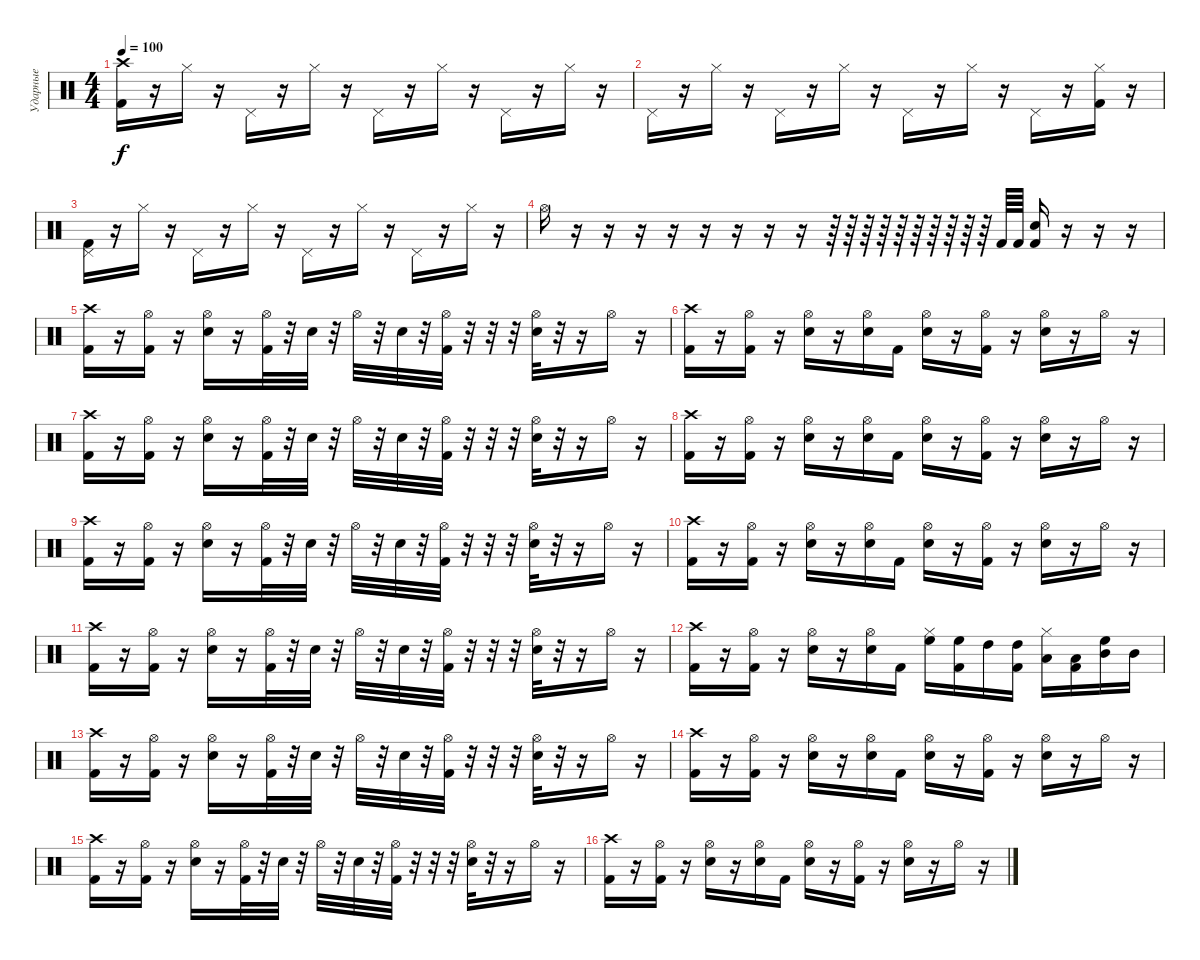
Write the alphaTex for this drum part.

\track ("Ударные" "Ударные") {instrument percussion}
\staff {score}
\articulation defaults
\ts (4 4)
\tempo 100
\clef neutral
\ks c
("Crash high (hit)" "Kick (hit) 2").16{dy f} r.16 "Hi-Hat (closed)".16 r.16 "Pedal Hi-Hat (hit)".16 r.16 "Hi-Hat (closed)".16 r.16 "Pedal Hi-Hat (hit)".16 r.16 "Hi-Hat (closed)".16 r.16 "Pedal Hi-Hat (hit)".16 r.16 "Hi-Hat (closed)".16 r.16 |
"Pedal Hi-Hat (hit)".16 r.16 "Hi-Hat (closed)".16 r.16 "Pedal Hi-Hat (hit)".16 r.16 "Hi-Hat (closed)".16 r.16 "Pedal Hi-Hat (hit)".16 r.16 "Hi-Hat (closed)".16 r.16 "Pedal Hi-Hat (hit)".16 r.16 ("Hi-Hat (closed)" "Kick (hit) 2").16 r.16 |
("Pedal Hi-Hat (hit)" "Kick (hit) 2").16 r.16 "Hi-Hat (closed)".16 r.16 "Pedal Hi-Hat (hit)".16 r.16 "Hi-Hat (closed)".16 r.16 "Pedal Hi-Hat (hit)".16 r.16 "Hi-Hat (closed)".16 r.16 "Pedal Hi-Hat (hit)".16 r.16 "Hi-Hat (closed)".16 r.16 |
"Hi-Hat (open)".16 r.16 r.16 r.16 r.16 r.16 r.16 r.16 r.16 r.64 r.64 r.64 r.64 r.64 r.64 r.64 r.64 r.64 r.64 "Kick (hit) 2".64 "Kick (hit) 2".64 ("Electric Snare (hit)" "Kick (hit) 2").16 r.16 r.16 r.16 |
("Crash high (hit)" "Kick (hit) 2").16 r.16 ("Hi-Hat (open)" "Kick (hit) 2").16 r.16 ("Hi-Hat (open)" "Electric Snare (hit)").16 r.16 ("Hi-Hat (open)" "Kick (hit) 2").32 r.32 "Electric Snare (hit)".32 r.32 "Hi-Hat (open)".32 r.32 "Electric Snare (hit)".32 r.32 ("Hi-Hat (open)" "Kick (hit) 2").32 r.32 r.32 r.32 ("Hi-Hat (open)" "Electric Snare (hit)").32 r.32 r.16 "Hi-Hat (open)".16 r.16 |
("Crash high (hit)" "Kick (hit) 2").16 r.16 ("Hi-Hat (open)" "Kick (hit) 2").16 r.16 ("Hi-Hat (open)" "Electric Snare (hit)").16 r.16 ("Hi-Hat (open)" "Electric Snare (hit)").16 "Kick (hit) 2".16 ("Hi-Hat (open)" "Electric Snare (hit)").16 r.16 ("Hi-Hat (open)" "Kick (hit) 2").16 r.16 ("Hi-Hat (open)" "Electric Snare (hit)").16 r.16 "Hi-Hat (open)".16 r.16 |
("Crash high (hit)" "Kick (hit) 2").16 r.16 ("Hi-Hat (open)" "Kick (hit) 2").16 r.16 ("Hi-Hat (open)" "Electric Snare (hit)").16 r.16 ("Hi-Hat (open)" "Kick (hit) 2").32 r.32 "Electric Snare (hit)".32 r.32 "Hi-Hat (open)".32 r.32 "Electric Snare (hit)".32 r.32 ("Hi-Hat (open)" "Kick (hit) 2").32 r.32 r.32 r.32 ("Hi-Hat (open)" "Electric Snare (hit)").32 r.32 r.16 "Hi-Hat (open)".16 r.16 |
("Crash high (hit)" "Kick (hit) 2").16 r.16 ("Hi-Hat (open)" "Kick (hit) 2").16 r.16 ("Hi-Hat (open)" "Electric Snare (hit)").16 r.16 ("Hi-Hat (open)" "Electric Snare (hit)").16 "Kick (hit) 2".16 ("Hi-Hat (open)" "Electric Snare (hit)").16 r.16 ("Hi-Hat (open)" "Kick (hit) 2").16 r.16 ("Hi-Hat (open)" "Electric Snare (hit)").16 r.16 "Hi-Hat (open)".16 r.16 |
("Crash high (hit)" "Kick (hit) 2").16 r.16 ("Hi-Hat (open)" "Kick (hit) 2").16 r.16 ("Hi-Hat (open)" "Electric Snare (hit)").16 r.16 ("Hi-Hat (open)" "Kick (hit) 2").32 r.32 "Electric Snare (hit)".32 r.32 "Hi-Hat (open)".32 r.32 "Electric Snare (hit)".32 r.32 ("Hi-Hat (open)" "Kick (hit) 2").32 r.32 r.32 r.32 ("Hi-Hat (open)" "Electric Snare (hit)").32 r.32 r.16 "Hi-Hat (open)".16 r.16 |
("Crash high (hit)" "Kick (hit) 2").16 r.16 ("Hi-Hat (open)" "Kick (hit) 2").16 r.16 ("Hi-Hat (open)" "Electric Snare (hit)").16 r.16 ("Hi-Hat (open)" "Electric Snare (hit)").16 "Kick (hit) 2".16 ("Hi-Hat (open)" "Electric Snare (hit)").16 r.16 ("Hi-Hat (open)" "Kick (hit) 2").16 r.16 ("Hi-Hat (open)" "Electric Snare (hit)").16 r.16 "Hi-Hat (open)".16 r.16 |
("Crash high (hit)" "Kick (hit) 2").16 r.16 ("Hi-Hat (open)" "Kick (hit) 2").16 r.16 ("Hi-Hat (open)" "Electric Snare (hit)").16 r.16 ("Hi-Hat (open)" "Kick (hit) 2").32 r.32 "Electric Snare (hit)".32 r.32 "Hi-Hat (open)".32 r.32 "Electric Snare (hit)".32 r.32 ("Hi-Hat (open)" "Kick (hit) 2").32 r.32 r.32 r.32 ("Hi-Hat (open)" "Electric Snare (hit)").32 r.32 r.16 "Hi-Hat (open)".16 r.16 |
("Crash high (hit)" "Kick (hit) 2").16 r.16 ("Hi-Hat (open)" "Kick (hit) 2").16 r.16 ("Hi-Hat (open)" "Electric Snare (hit)").16 r.16 ("Hi-Hat (open)" "Electric Snare (hit)").16 "Kick (hit) 2".16 ("Hi-Hat (closed)" "High Floor Tom (hit)").16 ("High Floor Tom (hit)" "Kick (hit) 2").16 "High Tom (hit)".16 ("High Tom (hit)" "Kick (hit) 2").16 ("Hi-Hat (closed)" "Low Tom (hit)").16 ("Low Tom (hit)" "Kick (hit) 2").16 ("High Floor Tom (hit)" "Mid Tom (hit)").16 "Mid Tom (hit)".16 |
("Crash high (hit)" "Kick (hit) 2").16 r.16 ("Hi-Hat (open)" "Kick (hit) 2").16 r.16 ("Hi-Hat (open)" "Electric Snare (hit)").16 r.16 ("Hi-Hat (open)" "Kick (hit) 2").32 r.32 "Electric Snare (hit)".32 r.32 "Hi-Hat (open)".32 r.32 "Electric Snare (hit)".32 r.32 ("Hi-Hat (open)" "Kick (hit) 2").32 r.32 r.32 r.32 ("Hi-Hat (open)" "Electric Snare (hit)").32 r.32 r.16 "Hi-Hat (open)".16 r.16 |
("Crash high (hit)" "Kick (hit) 2").16 r.16 ("Hi-Hat (open)" "Kick (hit) 2").16 r.16 ("Hi-Hat (open)" "Electric Snare (hit)").16 r.16 ("Hi-Hat (open)" "Electric Snare (hit)").16 "Kick (hit) 2".16 ("Hi-Hat (open)" "Electric Snare (hit)").16 r.16 ("Hi-Hat (open)" "Kick (hit) 2").16 r.16 ("Hi-Hat (open)" "Electric Snare (hit)").16 r.16 "Hi-Hat (open)".16 r.16 |
("Crash high (hit)" "Kick (hit) 2").16 r.16 ("Hi-Hat (open)" "Kick (hit) 2").16 r.16 ("Hi-Hat (open)" "Electric Snare (hit)").16 r.16 ("Hi-Hat (open)" "Kick (hit) 2").32 r.32 "Electric Snare (hit)".32 r.32 "Hi-Hat (open)".32 r.32 "Electric Snare (hit)".32 r.32 ("Hi-Hat (open)" "Kick (hit) 2").32 r.32 r.32 r.32 ("Hi-Hat (open)" "Electric Snare (hit)").32 r.32 r.16 "Hi-Hat (open)".16 r.16 |
("Crash high (hit)" "Kick (hit) 2").16 r.16 ("Hi-Hat (open)" "Kick (hit) 2").16 r.16 ("Hi-Hat (open)" "Electric Snare (hit)").16 r.16 ("Hi-Hat (open)" "Electric Snare (hit)").16 "Kick (hit) 2".16 ("Hi-Hat (open)" "Electric Snare (hit)").16 r.16 ("Hi-Hat (open)" "Kick (hit) 2").16 r.16 ("Hi-Hat (open)" "Electric Snare (hit)").16 r.16 "Hi-Hat (open)".16 r.16
